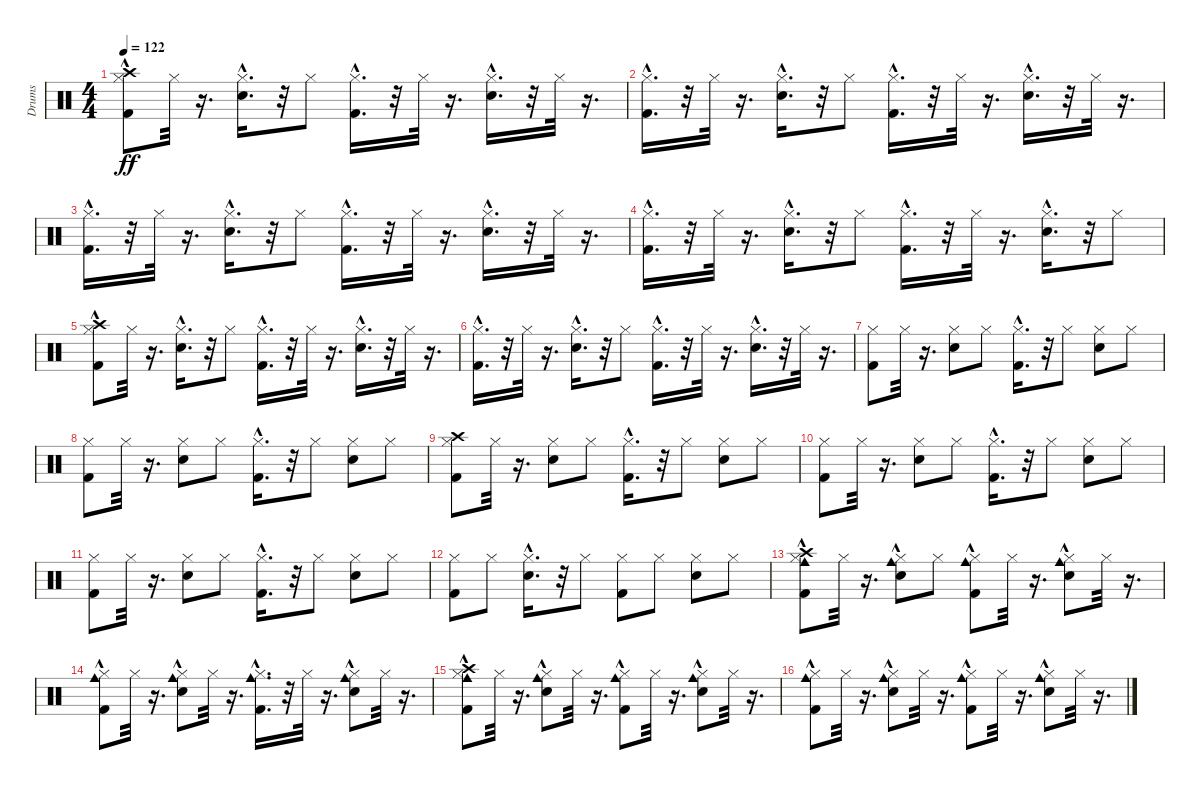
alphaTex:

\track ("Drums" "Drums") {instrument percussion}
\staff {score}
\articulation defaults
\ts (4 4)
\tempo 122
\clef neutral
\ks c
("Kick (hit) 2"{hac} "Hi-Hat (closed)"{hac} "Crash high (hit)").8{dy ff} "Hi-Hat (closed)".32 r.16{d} ("Snare (hit) 2"{hac} "Hi-Hat (closed)"{hac}).16{d} r.32 "Hi-Hat (closed)".8 ("Kick (hit) 2"{hac} "Hi-Hat (closed)"{hac}).16{d} r.32 "Hi-Hat (closed)".32 r.16{d} ("Snare (hit) 2"{hac} "Hi-Hat (closed)"{hac}).16{d} r.32 "Hi-Hat (closed)".32 r.16{d} |
("Kick (hit) 2"{hac} "Hi-Hat (closed)"{hac}).16{d} r.32 "Hi-Hat (closed)".32 r.16{d} ("Snare (hit) 2"{hac} "Hi-Hat (closed)"{hac}).16{d} r.32 "Hi-Hat (closed)".8 ("Kick (hit) 2"{hac} "Hi-Hat (closed)"{hac}).16{d} r.32 "Hi-Hat (closed)".32 r.16{d} ("Snare (hit) 2"{hac} "Hi-Hat (closed)"{hac}).16{d} r.32 "Hi-Hat (closed)".32 r.16{d} |
("Kick (hit) 2"{hac} "Hi-Hat (closed)"{hac}).16{d} r.32 "Hi-Hat (closed)".32 r.16{d} ("Snare (hit) 2"{hac} "Hi-Hat (closed)"{hac}).16{d} r.32 "Hi-Hat (closed)".8 ("Kick (hit) 2"{hac} "Hi-Hat (closed)"{hac}).16{d} r.32 "Hi-Hat (closed)".32 r.16{d} ("Snare (hit) 2"{hac} "Hi-Hat (closed)"{hac}).16{d} r.32 "Hi-Hat (closed)".32 r.16{d} |
("Kick (hit) 2"{hac} "Hi-Hat (closed)"{hac}).16{d} r.32 "Hi-Hat (closed)".32 r.16{d} ("Snare (hit) 2"{hac} "Hi-Hat (closed)"{hac}).16{d} r.32 "Hi-Hat (closed)".8 ("Kick (hit) 2"{hac} "Hi-Hat (closed)"{hac}).16{d} r.32 "Hi-Hat (closed)".32 r.16{d} ("Snare (hit) 2"{hac} "Hi-Hat (closed)"{hac}).16{d} r.32 "Hi-Hat (closed)".8 |
("Kick (hit) 2"{hac} "Hi-Hat (closed)"{hac} "Crash high (hit)").8 "Hi-Hat (closed)".32 r.16{d} ("Snare (hit) 2"{hac} "Hi-Hat (closed)"{hac}).16{d} r.32 "Hi-Hat (closed)".8 ("Kick (hit) 2"{hac} "Hi-Hat (closed)"{hac}).16{d} r.32 "Hi-Hat (closed)".32 r.16{d} ("Snare (hit) 2"{hac} "Hi-Hat (closed)"{hac}).16{d} r.32 "Hi-Hat (closed)".32 r.16{d} |
("Kick (hit) 2"{hac} "Hi-Hat (closed)"{hac}).16{d} r.32 "Hi-Hat (closed)".32 r.16{d} ("Snare (hit) 2"{hac} "Hi-Hat (closed)"{hac}).16{d} r.32 "Hi-Hat (closed)".8 ("Kick (hit) 2"{hac} "Hi-Hat (closed)"{hac}).16{d} r.32 "Hi-Hat (closed)".32 r.16{d} ("Snare (hit) 2"{hac} "Hi-Hat (closed)"{hac}).16{d} r.32 "Hi-Hat (closed)".32 r.16{d} |
("Kick (hit) 2" "Hi-Hat (closed)").8 "Hi-Hat (closed)".32 r.16{d} ("Snare (hit) 2" "Hi-Hat (closed)").8 "Hi-Hat (closed)".8 ("Kick (hit) 2"{hac} "Hi-Hat (closed)"{hac}).16{d} r.32 "Hi-Hat (closed)".8 ("Snare (hit) 2" "Hi-Hat (closed)").8 "Hi-Hat (closed)".8 |
("Kick (hit) 2" "Hi-Hat (closed)").8 "Hi-Hat (closed)".32 r.16{d} ("Snare (hit) 2" "Hi-Hat (closed)").8 "Hi-Hat (closed)".8 ("Kick (hit) 2"{hac} "Hi-Hat (closed)"{hac}).16{d} r.32 "Hi-Hat (closed)".8 ("Snare (hit) 2" "Hi-Hat (closed)").8 "Hi-Hat (closed)".8 |
("Crash high (hit)" "Kick (hit) 2" "Hi-Hat (closed)").8 "Hi-Hat (closed)".32 r.16{d} ("Snare (hit) 2" "Hi-Hat (closed)").8 "Hi-Hat (closed)".8 ("Kick (hit) 2"{hac} "Hi-Hat (closed)"{hac}).16{d} r.32 "Hi-Hat (closed)".8 ("Snare (hit) 2" "Hi-Hat (closed)").8 "Hi-Hat (closed)".8 |
("Kick (hit) 2" "Hi-Hat (closed)").8 "Hi-Hat (closed)".32 r.16{d} ("Snare (hit) 2" "Hi-Hat (closed)").8 "Hi-Hat (closed)".8 ("Kick (hit) 2"{hac} "Hi-Hat (closed)"{hac}).16{d} r.32 "Hi-Hat (closed)".8 ("Snare (hit) 2" "Hi-Hat (closed)").8 "Hi-Hat (closed)".8 |
("Kick (hit) 2" "Hi-Hat (closed)").8 "Hi-Hat (closed)".32 r.16{d} ("Snare (hit) 2" "Hi-Hat (closed)").8 "Hi-Hat (closed)".8 ("Kick (hit) 2"{hac} "Hi-Hat (closed)"{hac}).16{d} r.32 "Hi-Hat (closed)".8 ("Snare (hit) 2" "Hi-Hat (closed)").8 "Hi-Hat (closed)".8 |
("Kick (hit) 2" "Hi-Hat (closed)").8 "Hi-Hat (closed)".8 ("Snare (hit) 2"{hac} "Hi-Hat (closed)"{hac}).16{d} r.32 "Hi-Hat (closed)".8 ("Kick (hit) 2" "Hi-Hat (closed)").8 "Hi-Hat (closed)".8 ("Snare (hit) 2" "Hi-Hat (closed)").8 "Hi-Hat (closed)".8 |
("Kick (hit) 2"{hac} "Hi-Hat (closed)"{hac} "Crash high (hit)" "Cowbell medium (hit)").8 "Hi-Hat (closed)".32 r.16{d} ("Snare (hit) 2"{hac} "Hi-Hat (closed)"{hac} "Cowbell medium (hit)").8 "Hi-Hat (closed)".8 ("Kick (hit) 2"{hac} "Hi-Hat (closed)"{hac} "Cowbell medium (hit)").8 "Hi-Hat (closed)".32 r.16{d} ("Snare (hit) 2"{hac} "Hi-Hat (closed)"{hac} "Cowbell medium (hit)").8 "Hi-Hat (closed)".32 r.16{d} |
("Kick (hit) 2"{hac} "Hi-Hat (closed)"{hac} "Cowbell medium (hit)").8 "Hi-Hat (closed)".32 r.16{d} ("Snare (hit) 2"{hac} "Hi-Hat (closed)"{hac} "Cowbell medium (hit)").8 "Hi-Hat (closed)".32 r.16{d} ("Kick (hit) 2"{hac} "Hi-Hat (closed)"{hac} "Cowbell medium (hit)"{hac}).16{d} r.32 "Hi-Hat (closed)".32 r.16{d} ("Snare (hit) 2"{hac} "Hi-Hat (closed)"{hac} "Cowbell medium (hit)").8 "Hi-Hat (closed)".32 r.16{d} |
("Kick (hit) 2"{hac} "Hi-Hat (closed)"{hac} "Crash high (hit)" "Cowbell medium (hit)"{hac}).8 "Hi-Hat (closed)".32 r.16{d} ("Snare (hit) 2"{hac} "Hi-Hat (closed)"{hac} "Cowbell medium (hit)"{hac}).8 "Hi-Hat (closed)".32 r.16{d} ("Kick (hit) 2"{hac} "Hi-Hat (closed)"{hac} "Cowbell medium (hit)"{hac}).8 "Hi-Hat (closed)".32 r.16{d} ("Snare (hit) 2"{hac} "Hi-Hat (closed)"{hac} "Cowbell medium (hit)"{hac}).8 "Hi-Hat (closed)".32 r.16{d} |
("Kick (hit) 2"{hac} "Hi-Hat (closed)"{hac} "Cowbell medium (hit)"{hac}).8 "Hi-Hat (closed)".32 r.16{d} ("Snare (hit) 2"{hac} "Hi-Hat (closed)"{hac} "Cowbell medium (hit)"{hac}).8 "Hi-Hat (closed)".32 r.16{d} ("Kick (hit) 2"{hac} "Hi-Hat (closed)"{hac} "Cowbell medium (hit)").8 "Hi-Hat (closed)".32 r.16{d} ("Snare (hit) 2"{hac} "Hi-Hat (closed)"{hac} "Cowbell medium (hit)"{hac}).8 "Hi-Hat (closed)".32 r.16{d}
